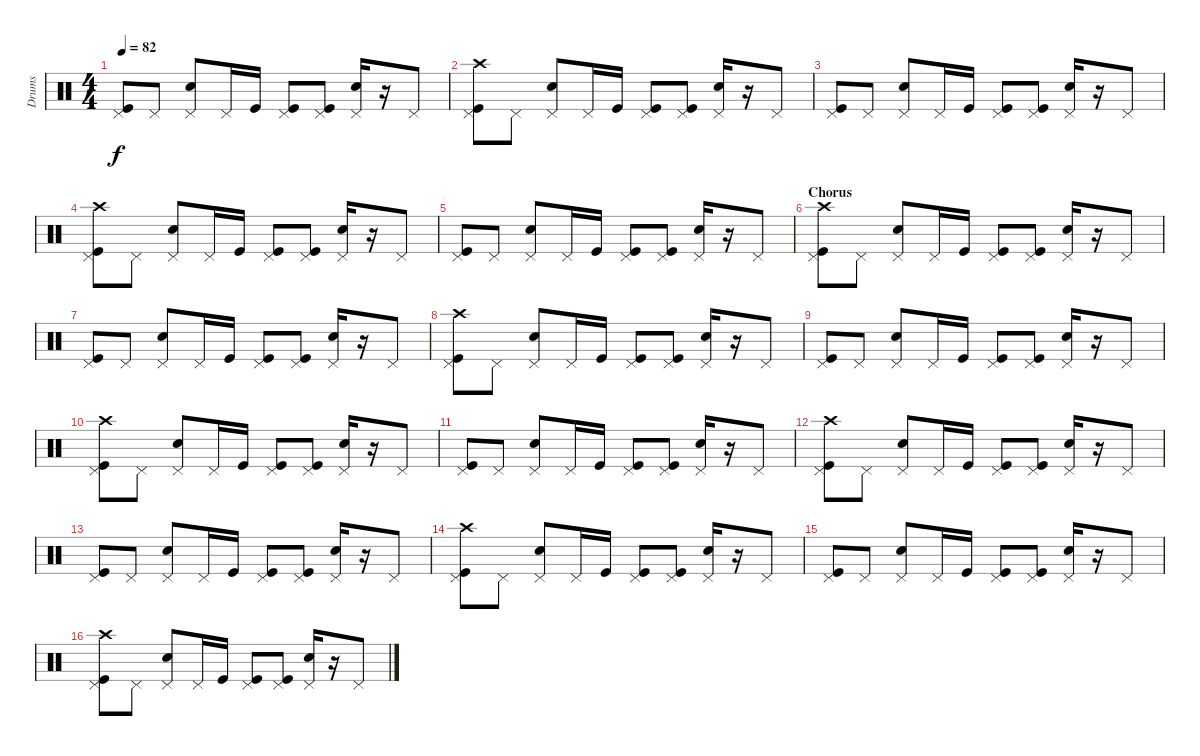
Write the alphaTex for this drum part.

\track ("Drums" "Drums") {instrument percussion}
\staff {score}
\articulation defaults
\ts (4 4)
\tempo 82
\clef neutral
\ks c
("Kick (hit)" "Pedal Hi-Hat (hit)").8{dy f} "Pedal Hi-Hat (hit)".8 ("Electric Snare (hit)" "Pedal Hi-Hat (hit)").8 "Pedal Hi-Hat (hit)".16 "Kick (hit)".16 ("Kick (hit)" "Pedal Hi-Hat (hit)").8 ("Kick (hit)" "Pedal Hi-Hat (hit)").8 ("Electric Snare (hit)" "Pedal Hi-Hat (hit)").16 r.16 "Pedal Hi-Hat (hit)".8 |
("Kick (hit)" "Crash high (hit)" "Pedal Hi-Hat (hit)").8 "Pedal Hi-Hat (hit)".8 ("Electric Snare (hit)" "Pedal Hi-Hat (hit)").8 "Pedal Hi-Hat (hit)".16 "Kick (hit)".16 ("Kick (hit)" "Pedal Hi-Hat (hit)").8 ("Kick (hit)" "Pedal Hi-Hat (hit)").8 ("Electric Snare (hit)" "Pedal Hi-Hat (hit)").16 r.16 "Pedal Hi-Hat (hit)".8 |
("Kick (hit)" "Pedal Hi-Hat (hit)").8 "Pedal Hi-Hat (hit)".8 ("Electric Snare (hit)" "Pedal Hi-Hat (hit)").8 "Pedal Hi-Hat (hit)".16 "Kick (hit)".16 ("Kick (hit)" "Pedal Hi-Hat (hit)").8 ("Kick (hit)" "Pedal Hi-Hat (hit)").8 ("Electric Snare (hit)" "Pedal Hi-Hat (hit)").16 r.16 "Pedal Hi-Hat (hit)".8 |
("Kick (hit)" "Crash high (hit)" "Pedal Hi-Hat (hit)").8 "Pedal Hi-Hat (hit)".8 ("Electric Snare (hit)" "Pedal Hi-Hat (hit)").8 "Pedal Hi-Hat (hit)".16 "Kick (hit)".16 ("Kick (hit)" "Pedal Hi-Hat (hit)").8 ("Kick (hit)" "Pedal Hi-Hat (hit)").8 ("Electric Snare (hit)" "Pedal Hi-Hat (hit)").16 r.16 "Pedal Hi-Hat (hit)".8 |
("Kick (hit)" "Pedal Hi-Hat (hit)").8 "Pedal Hi-Hat (hit)".8 ("Electric Snare (hit)" "Pedal Hi-Hat (hit)").8 "Pedal Hi-Hat (hit)".16 "Kick (hit)".16 ("Kick (hit)" "Pedal Hi-Hat (hit)").8 ("Kick (hit)" "Pedal Hi-Hat (hit)").8 ("Electric Snare (hit)" "Pedal Hi-Hat (hit)").16 r.16 "Pedal Hi-Hat (hit)".8 |
\section ("" "Chorus")
("Kick (hit)" "Crash high (hit)" "Pedal Hi-Hat (hit)").8 "Pedal Hi-Hat (hit)".8 ("Electric Snare (hit)" "Pedal Hi-Hat (hit)").8 "Pedal Hi-Hat (hit)".16 "Kick (hit)".16 ("Kick (hit)" "Pedal Hi-Hat (hit)").8 ("Kick (hit)" "Pedal Hi-Hat (hit)").8 ("Electric Snare (hit)" "Pedal Hi-Hat (hit)").16 r.16 "Pedal Hi-Hat (hit)".8 |
("Kick (hit)" "Pedal Hi-Hat (hit)").8 "Pedal Hi-Hat (hit)".8 ("Electric Snare (hit)" "Pedal Hi-Hat (hit)").8 "Pedal Hi-Hat (hit)".16 "Kick (hit)".16 ("Kick (hit)" "Pedal Hi-Hat (hit)").8 ("Kick (hit)" "Pedal Hi-Hat (hit)").8 ("Electric Snare (hit)" "Pedal Hi-Hat (hit)").16 r.16 "Pedal Hi-Hat (hit)".8 |
("Kick (hit)" "Crash high (hit)" "Pedal Hi-Hat (hit)").8 "Pedal Hi-Hat (hit)".8 ("Electric Snare (hit)" "Pedal Hi-Hat (hit)").8 "Pedal Hi-Hat (hit)".16 "Kick (hit)".16 ("Kick (hit)" "Pedal Hi-Hat (hit)").8 ("Kick (hit)" "Pedal Hi-Hat (hit)").8 ("Electric Snare (hit)" "Pedal Hi-Hat (hit)").16 r.16 "Pedal Hi-Hat (hit)".8 |
("Kick (hit)" "Pedal Hi-Hat (hit)").8 "Pedal Hi-Hat (hit)".8 ("Electric Snare (hit)" "Pedal Hi-Hat (hit)").8 "Pedal Hi-Hat (hit)".16 "Kick (hit)".16 ("Kick (hit)" "Pedal Hi-Hat (hit)").8 ("Kick (hit)" "Pedal Hi-Hat (hit)").8 ("Electric Snare (hit)" "Pedal Hi-Hat (hit)").16 r.16 "Pedal Hi-Hat (hit)".8 |
("Kick (hit)" "Crash high (hit)" "Pedal Hi-Hat (hit)").8 "Pedal Hi-Hat (hit)".8 ("Electric Snare (hit)" "Pedal Hi-Hat (hit)").8 "Pedal Hi-Hat (hit)".16 "Kick (hit)".16 ("Kick (hit)" "Pedal Hi-Hat (hit)").8 ("Kick (hit)" "Pedal Hi-Hat (hit)").8 ("Electric Snare (hit)" "Pedal Hi-Hat (hit)").16 r.16 "Pedal Hi-Hat (hit)".8 |
("Kick (hit)" "Pedal Hi-Hat (hit)").8 "Pedal Hi-Hat (hit)".8 ("Electric Snare (hit)" "Pedal Hi-Hat (hit)").8 "Pedal Hi-Hat (hit)".16 "Kick (hit)".16 ("Kick (hit)" "Pedal Hi-Hat (hit)").8 ("Kick (hit)" "Pedal Hi-Hat (hit)").8 ("Electric Snare (hit)" "Pedal Hi-Hat (hit)").16 r.16 "Pedal Hi-Hat (hit)".8 |
("Kick (hit)" "Crash high (hit)" "Pedal Hi-Hat (hit)").8 "Pedal Hi-Hat (hit)".8 ("Electric Snare (hit)" "Pedal Hi-Hat (hit)").8 "Pedal Hi-Hat (hit)".16 "Kick (hit)".16 ("Kick (hit)" "Pedal Hi-Hat (hit)").8 ("Kick (hit)" "Pedal Hi-Hat (hit)").8 ("Electric Snare (hit)" "Pedal Hi-Hat (hit)").16 r.16 "Pedal Hi-Hat (hit)".8 |
("Kick (hit)" "Pedal Hi-Hat (hit)").8 "Pedal Hi-Hat (hit)".8 ("Electric Snare (hit)" "Pedal Hi-Hat (hit)").8 "Pedal Hi-Hat (hit)".16 "Kick (hit)".16 ("Kick (hit)" "Pedal Hi-Hat (hit)").8 ("Kick (hit)" "Pedal Hi-Hat (hit)").8 ("Electric Snare (hit)" "Pedal Hi-Hat (hit)").16 r.16 "Pedal Hi-Hat (hit)".8 |
("Kick (hit)" "Crash high (hit)" "Pedal Hi-Hat (hit)").8 "Pedal Hi-Hat (hit)".8 ("Electric Snare (hit)" "Pedal Hi-Hat (hit)").8 "Pedal Hi-Hat (hit)".16 "Kick (hit)".16 ("Kick (hit)" "Pedal Hi-Hat (hit)").8 ("Kick (hit)" "Pedal Hi-Hat (hit)").8 ("Electric Snare (hit)" "Pedal Hi-Hat (hit)").16 r.16 "Pedal Hi-Hat (hit)".8 |
("Kick (hit)" "Pedal Hi-Hat (hit)").8 "Pedal Hi-Hat (hit)".8 ("Electric Snare (hit)" "Pedal Hi-Hat (hit)").8 "Pedal Hi-Hat (hit)".16 "Kick (hit)".16 ("Kick (hit)" "Pedal Hi-Hat (hit)").8 ("Kick (hit)" "Pedal Hi-Hat (hit)").8 ("Electric Snare (hit)" "Pedal Hi-Hat (hit)").16 r.16 "Pedal Hi-Hat (hit)".8 |
("Kick (hit)" "Crash high (hit)" "Pedal Hi-Hat (hit)").8 "Pedal Hi-Hat (hit)".8 ("Electric Snare (hit)" "Pedal Hi-Hat (hit)").8 "Pedal Hi-Hat (hit)".16 "Kick (hit)".16 ("Kick (hit)" "Pedal Hi-Hat (hit)").8 ("Kick (hit)" "Pedal Hi-Hat (hit)").8 ("Electric Snare (hit)" "Pedal Hi-Hat (hit)").16 r.16 "Pedal Hi-Hat (hit)".8
